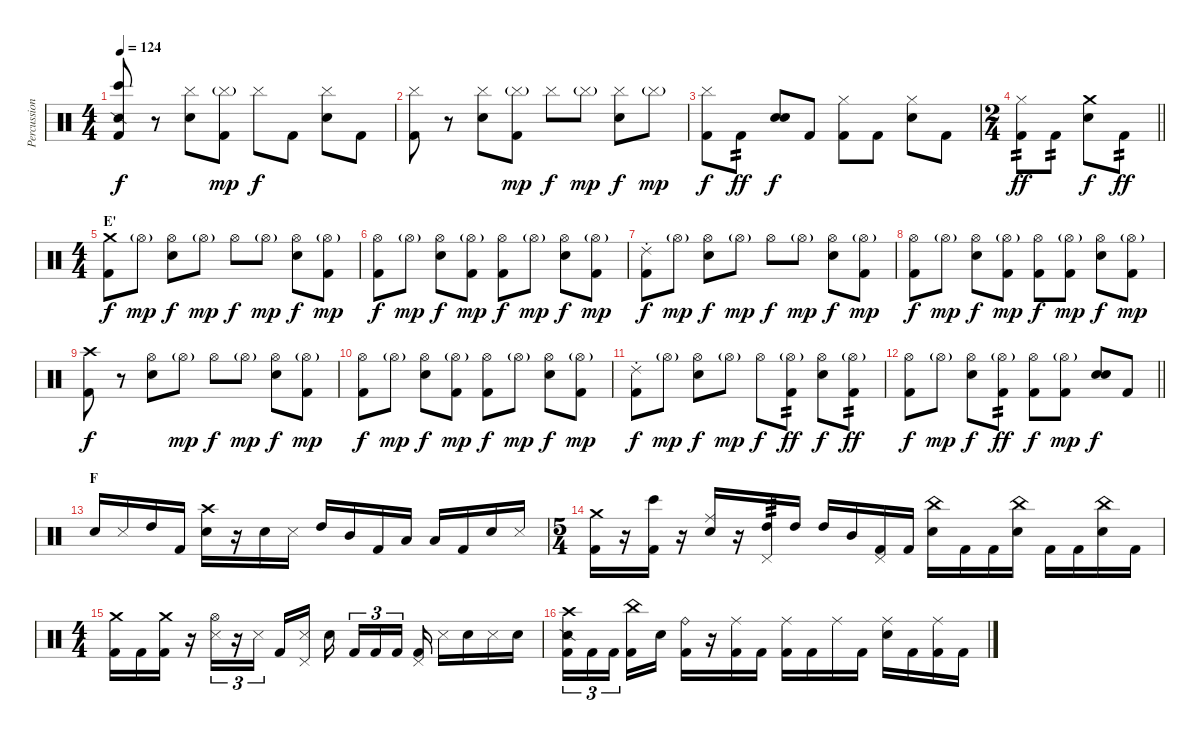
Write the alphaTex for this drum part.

\track ("Percussion" "Percussion") {instrument percussion}
\staff {score}
\articulation defaults
\ts (4 4)
\tempo 124
\clef neutral
\ks c
("Snare (side stick) 2" "Bongo High (hit)" "Kick (hit) 2").8{dy f} r.8 ("Cymbal (hit)" "Snare (hit) 2").8 ("Cymbal (hit)"{g} "Kick (hit) 2").8{dy mp} "Cymbal (hit)".8{dy f} "Kick (hit) 2".8 ("Cymbal (hit)" "Snare (hit) 2").8 "Kick (hit) 2".8 |
("Cymbal (hit)" "Kick (hit) 2").8 r.8 ("Cymbal (hit)" "Snare (hit) 2").8 ("Cymbal (hit)"{g} "Kick (hit) 2").8{dy mp} "Cymbal (hit)".8{dy f} "Cymbal (hit)"{g}.8{dy mp} ("Cymbal (hit)" "Snare (hit) 2").8{dy f} "Cymbal (hit)"{g}.8{dy mp} |
("Cymbal (hit)" "Kick (hit) 2").8{dy f} "Kick (hit) 2".8{tp 2 dy ff} ("Snare (hit)" "Snare (hit) 2").8{dy f} "Kick (hit) 2".8 ("Hi-Hat (closed)" "Kick (hit) 2").8 "Kick (hit) 2".8 ("Hi-Hat (closed)" "Snare (hit) 2").8 "Kick (hit) 2".8 |
\ts (2 4)
\barLineRight lightlight
("Hi-Hat (closed)" "Kick (hit) 2").8{tp 2 dy ff} "Kick (hit) 2".8{tp 2} ("Crash medium (hit)" "Snare (hit) 2").8{dy f} "Kick (hit) 2".8{tp 2 dy ff} |
\ts (4 4)
\section ("" "E'")
("Crash medium (hit)" "Kick (hit) 2").8{dy f} "Hi-Hat (open)"{g}.8{dy mp} ("Hi-Hat (open)" "Snare (hit) 2").8{dy f} "Hi-Hat (open)"{g}.8{dy mp} "Hi-Hat (open)".8{dy f} "Hi-Hat (open)"{g}.8{dy mp} ("Hi-Hat (open)" "Snare (hit) 2").8{dy f} ("Hi-Hat (open)"{g} "Kick (hit) 2").8{dy mp} |
("Hi-Hat (open)" "Kick (hit) 2").8{dy f} "Hi-Hat (open)"{g}.8{dy mp} ("Hi-Hat (open)" "Snare (hit) 2").8{dy f} ("Hi-Hat (open)"{g} "Kick (hit) 2").8{dy mp} ("Hi-Hat (open)" "Kick (hit) 2").8{dy f} "Hi-Hat (open)"{g}.8{dy mp} ("Hi-Hat (open)" "Snare (hit) 2").8{dy f} ("Hi-Hat (open)"{g} "Kick (hit) 2").8{dy mp} |
("Ride (choke) 2" "Kick (hit) 2").8{dy f} "Hi-Hat (open)"{g}.8{dy mp} ("Hi-Hat (open)" "Snare (hit) 2").8{dy f} "Hi-Hat (open)"{g}.8{dy mp} "Hi-Hat (open)".8{dy f} "Hi-Hat (open)"{g}.8{dy mp} ("Hi-Hat (open)" "Snare (hit) 2").8{dy f} ("Hi-Hat (open)"{g} "Kick (hit) 2").8{dy mp} |
("Hi-Hat (open)" "Kick (hit) 2").8{dy f} "Hi-Hat (open)"{g}.8{dy mp} ("Hi-Hat (open)" "Snare (hit) 2").8{dy f} ("Hi-Hat (open)"{g} "Kick (hit) 2").8{dy mp} ("Hi-Hat (open)" "Kick (hit) 2").8{dy f} ("Hi-Hat (open)"{g} "Kick (hit) 2").8{dy mp} ("Hi-Hat (open)" "Snare (hit) 2").8{dy f} ("Hi-Hat (open)"{g} "Kick (hit) 2").8{dy mp} |
("Crash high (hit)" "Kick (hit) 2").8{dy f} r.8 ("Hi-Hat (open)" "Snare (hit) 2").8 "Hi-Hat (open)"{g}.8{dy mp} "Hi-Hat (open)".8{dy f} "Hi-Hat (open)"{g}.8{dy mp} ("Hi-Hat (open)" "Snare (hit) 2").8{dy f} ("Hi-Hat (open)"{g} "Kick (hit) 2").8{dy mp} |
("Hi-Hat (open)" "Kick (hit) 2").8{dy f} "Hi-Hat (open)"{g}.8{dy mp} ("Hi-Hat (open)" "Snare (hit) 2").8{dy f} ("Hi-Hat (open)"{g} "Kick (hit) 2").8{dy mp} ("Hi-Hat (open)" "Kick (hit) 2").8{dy f} "Hi-Hat (open)"{g}.8{dy mp} ("Hi-Hat (open)" "Snare (hit) 2").8{dy f} ("Hi-Hat (open)"{g} "Kick (hit) 2").8{dy mp} |
("Ride (choke) 2" "Kick (hit) 2").8{dy f} "Hi-Hat (open)"{g}.8{dy mp} ("Hi-Hat (open)" "Snare (hit) 2").8{dy f} "Hi-Hat (open)"{g}.8{dy mp} "Hi-Hat (open)".8{dy f} ("Hi-Hat (open)"{g} "Kick (hit) 2").8{tp 2 dy ff} ("Hi-Hat (open)" "Snare (hit) 2").8{dy f} ("Hi-Hat (open)"{g} "Kick (hit) 2").8{tp 2 dy ff} |
\barLineRight lightlight
("Hi-Hat (open)" "Kick (hit) 2").8{dy f} "Hi-Hat (open)"{g}.8{dy mp} ("Hi-Hat (open)" "Snare (hit) 2").8{dy f} ("Hi-Hat (open)"{g} "Kick (hit) 2").8{tp 2 dy ff} ("Hi-Hat (open)" "Kick (hit) 2").8{dy f} ("Hi-Hat (open)"{g} "Kick (hit) 2").8{dy mp} ("Snare (hit)" "Snare (hit) 2").8{dy f} "Kick (hit) 2".8 |
\section ("" "F")
"Snare (hit) 2".16 "Metronome (hit)".16 "High Tom (hit)".16 "Kick (hit) 2".16 ("Crash high (hit)" "Snare (hit) 2").16 r.16 "Snare (hit) 2".16 "Metronome (hit)".16 "High Tom (hit)".16 "Mid Tom (hit)".16 "Kick (hit) 2".16 "Low Tom (hit)".16 "Low Tom (hit)".16 "Kick (hit) 2".16 "Snare (hit) 2".16 "Metronome (hit)".16 |
\ts (5 4)
("Crash medium (hit)" "Kick (hit) 2").16 r.16 ("Bongo High (hit)" "Kick (hit) 2").16 r.16 ("Ride (middle)" "Snare (hit) 2").16 r.16 ("Pedal Hi-Hat (hit)" "High Tom (hit)").16{tp 3} "High Tom (hit)".16 "High Tom (hit)".16 "Mid Tom (hit)".16 ("Pedal Hi-Hat (hit)" "Kick (hit) 2").16 "Kick (hit) 2".16 ("China (hit)" "Snare (hit) 2").16 "Kick (hit) 2".16 "Kick (hit) 2".16 ("China (hit)" "Snare (hit) 2").16 "Kick (hit) 2".16 "Kick (hit) 2".16 ("China (hit)" "Snare (hit) 2").16 "Kick (hit) 2".16 |
\ts (4 4)
("Crash medium (hit)" "Kick (hit) 2").16 "Kick (hit) 2".16 ("Crash medium (hit)" "Kick (hit) 2").16 r.16 ("Hi-Hat (open)" "Metronome (hit)").16{tu (3 2)} r.16{tu (3 2)} "Metronome (hit)".16{tu (3 2) beam splitsecondary} "Kick (hit) 2".16 ("Pedal Hi-Hat (hit)" "Metronome (hit)").16 "Snare (hit) 2".16{beam splitsecondary} "Kick (hit) 2".16{tu (3 2)} "Kick (hit) 2".16{tu (3 2)} "Kick (hit) 2".16{tu (3 2) beam splitsecondary} ("Pedal Hi-Hat (hit)" "Kick (hit) 2").16 "Metronome (hit)".16 "Snare (hit) 2".16 "Metronome (hit)".16 "Snare (hit) 2".16 |
("Crash high (hit)" "Snare (side stick) 2" "Kick (hit) 2").16{tu (3 2)} "Kick (hit) 2".16{tu (3 2)} "Kick (hit) 2".16{tu (3 2) beam splitsecondary} ("China (hit)" "Kick (hit) 2").16 "Snare (hit) 2".16 ("Ride (bell)" "Kick (hit) 2").16 r.16 ("Ride (middle)" "Kick (hit) 2").16 "Kick (hit) 2".16 ("Ride (middle)" "Kick (hit) 2").16 "Kick (hit) 2".16 "Ride (middle)".16 "Kick (hit) 2".16 ("Ride (middle)" "Snare (hit) 2").16 "Kick (hit) 2".16 ("Ride (middle)" "Kick (hit) 2").16 "Kick (hit) 2".16
